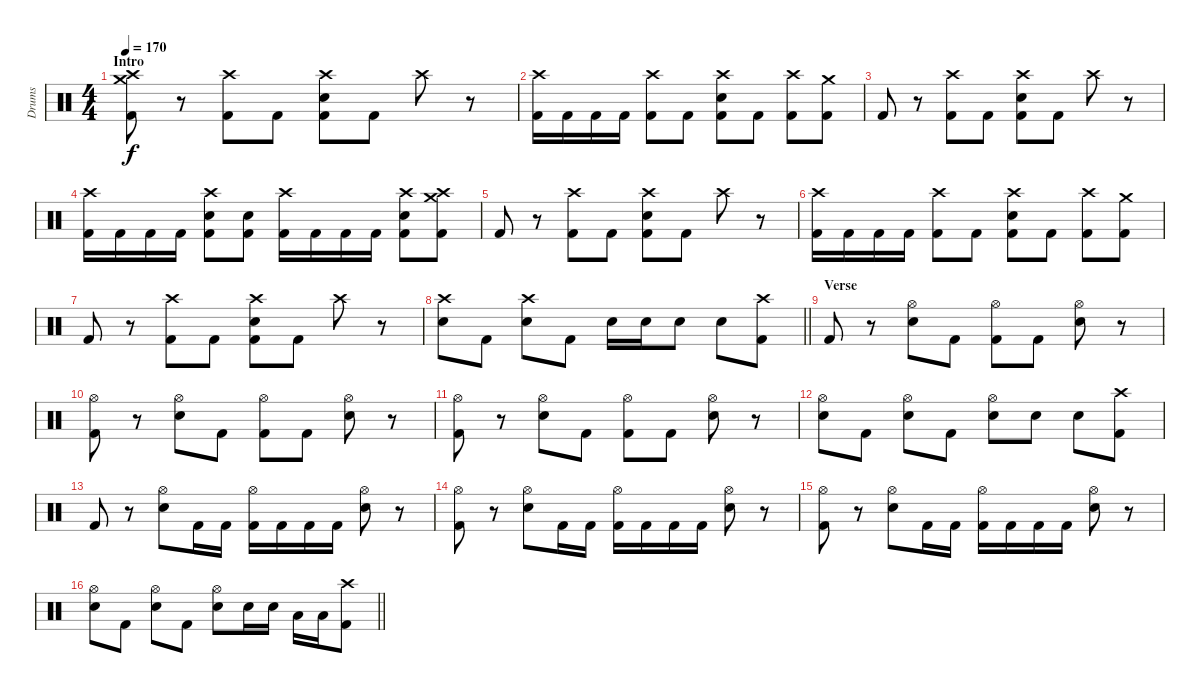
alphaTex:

\track ("Drums" "Drums") {instrument percussion}
\staff {score}
\articulation defaults
\ts (4 4)
\section ("" "Intro")
\tempo 170
\clef neutral
\ks c
("Crash high (hit)" "Crash medium (hit)" "Kick (hit) 2").8{dy f} r.8 ("Crash high (hit)" "Kick (hit) 2").8 "Kick (hit) 2".8 ("Crash high (hit)" "Snare (hit) 2" "Kick (hit) 2").8 "Kick (hit) 2".8 "Crash high (hit)".8 r.8 |
("Crash high (hit)" "Kick (hit) 2").16 "Kick (hit) 2".16 "Kick (hit) 2".16 "Kick (hit) 2".16 ("Crash high (hit)" "Kick (hit) 2").8 "Kick (hit) 2".8 ("Crash high (hit)" "Snare (hit) 2" "Kick (hit) 2").8 "Kick (hit) 2".8 ("Crash high (hit)" "Kick (hit) 2").8 ("Crash medium (hit)" "Kick (hit) 2").8 |
"Kick (hit) 2".8 r.8 ("Crash high (hit)" "Kick (hit) 2").8 "Kick (hit) 2".8 ("Crash high (hit)" "Snare (hit) 2" "Kick (hit) 2").8 "Kick (hit) 2".8 "Crash high (hit)".8 r.8 |
("Crash high (hit)" "Kick (hit) 2").16 "Kick (hit) 2".16 "Kick (hit) 2".16 "Kick (hit) 2".16 ("Crash high (hit)" "Snare (hit) 2" "Kick (hit) 2").8 ("Snare (hit) 2" "Kick (hit) 2").8 ("Crash high (hit)" "Kick (hit) 2").16 "Kick (hit) 2".16 "Kick (hit) 2".16 "Kick (hit) 2".16 ("Crash high (hit)" "Snare (hit) 2" "Kick (hit) 2").8 ("Crash high (hit)" "Crash medium (hit)" "Kick (hit) 2").8 |
"Kick (hit) 2".8 r.8 ("Crash high (hit)" "Kick (hit) 2").8 "Kick (hit) 2".8 ("Crash high (hit)" "Snare (hit) 2" "Kick (hit) 2").8 "Kick (hit) 2".8 "Crash high (hit)".8 r.8 |
("Crash high (hit)" "Kick (hit) 2").16 "Kick (hit) 2".16 "Kick (hit) 2".16 "Kick (hit) 2".16 ("Crash high (hit)" "Kick (hit) 2").8 "Kick (hit) 2".8 ("Crash high (hit)" "Snare (hit) 2" "Kick (hit) 2").8 "Kick (hit) 2".8 ("Crash high (hit)" "Kick (hit) 2").8 ("Crash medium (hit)" "Kick (hit) 2").8 |
"Kick (hit) 2".8 r.8 ("Crash high (hit)" "Kick (hit) 2").8 "Kick (hit) 2".8 ("Crash high (hit)" "Snare (hit) 2" "Kick (hit) 2").8 "Kick (hit) 2".8 "Crash high (hit)".8 r.8 |
\barLineRight lightlight
("Crash high (hit)" "Snare (hit) 2").8 "Kick (hit) 2".8 ("Crash high (hit)" "Snare (hit) 2").8 "Kick (hit) 2".8 "Snare (hit) 2".16 "Snare (hit) 2".16 "Snare (hit) 2".8 "Snare (hit) 2".8 ("Crash high (hit)" "Kick (hit) 2").8 |
\section ("" "Verse")
"Kick (hit) 2".8 r.8 ("Hi-Hat (open)" "Snare (hit) 2").8 "Kick (hit) 2".8 ("Hi-Hat (open)" "Kick (hit) 2").8 "Kick (hit) 2".8 ("Hi-Hat (open)" "Snare (hit) 2").8 r.8 |
("Hi-Hat (open)" "Kick (hit) 2").8 r.8 ("Hi-Hat (open)" "Snare (hit) 2").8 "Kick (hit) 2".8 ("Hi-Hat (open)" "Kick (hit) 2").8 "Kick (hit) 2".8 ("Hi-Hat (open)" "Snare (hit) 2").8 r.8 |
("Hi-Hat (open)" "Kick (hit) 2").8 r.8 ("Hi-Hat (open)" "Snare (hit) 2").8 "Kick (hit) 2".8 ("Hi-Hat (open)" "Kick (hit) 2").8 "Kick (hit) 2".8 ("Hi-Hat (open)" "Snare (hit) 2").8 r.8 |
("Hi-Hat (open)" "Snare (hit) 2").8 "Kick (hit) 2".8 ("Hi-Hat (open)" "Snare (hit) 2").8 "Kick (hit) 2".8 ("Hi-Hat (open)" "Snare (hit) 2").8 "Snare (hit) 2".8 "Snare (hit) 2".8 ("Crash high (hit)" "Kick (hit) 2").8 |
"Kick (hit) 2".8 r.8 ("Hi-Hat (open)" "Snare (hit) 2").8 "Kick (hit) 2".16 "Kick (hit) 2".16 ("Hi-Hat (open)" "Kick (hit) 2").16 "Kick (hit) 2".16 "Kick (hit) 2".16 "Kick (hit) 2".16 ("Hi-Hat (open)" "Snare (hit) 2").8 r.8 |
("Hi-Hat (open)" "Kick (hit) 2").8 r.8 ("Hi-Hat (open)" "Snare (hit) 2").8 "Kick (hit) 2".16 "Kick (hit) 2".16 ("Hi-Hat (open)" "Kick (hit) 2").16 "Kick (hit) 2".16 "Kick (hit) 2".16 "Kick (hit) 2".16 ("Hi-Hat (open)" "Snare (hit) 2").8 r.8 |
("Hi-Hat (open)" "Kick (hit) 2").8 r.8 ("Hi-Hat (open)" "Snare (hit) 2").8 "Kick (hit) 2".16 "Kick (hit) 2".16 ("Hi-Hat (open)" "Kick (hit) 2").16 "Kick (hit) 2".16 "Kick (hit) 2".16 "Kick (hit) 2".16 ("Hi-Hat (open)" "Snare (hit) 2").8 r.8 |
\barLineRight lightlight
("Hi-Hat (open)" "Snare (hit) 2").8 "Kick (hit) 2".8 ("Hi-Hat (open)" "Snare (hit) 2").8 "Kick (hit) 2".8 ("Hi-Hat (open)" "Snare (hit) 2").8 "Snare (hit) 2".16 "Snare (hit) 2".16 "Low Tom (hit)".16 "Low Tom (hit)".16 ("Crash high (hit)" "Kick (hit) 2").8
